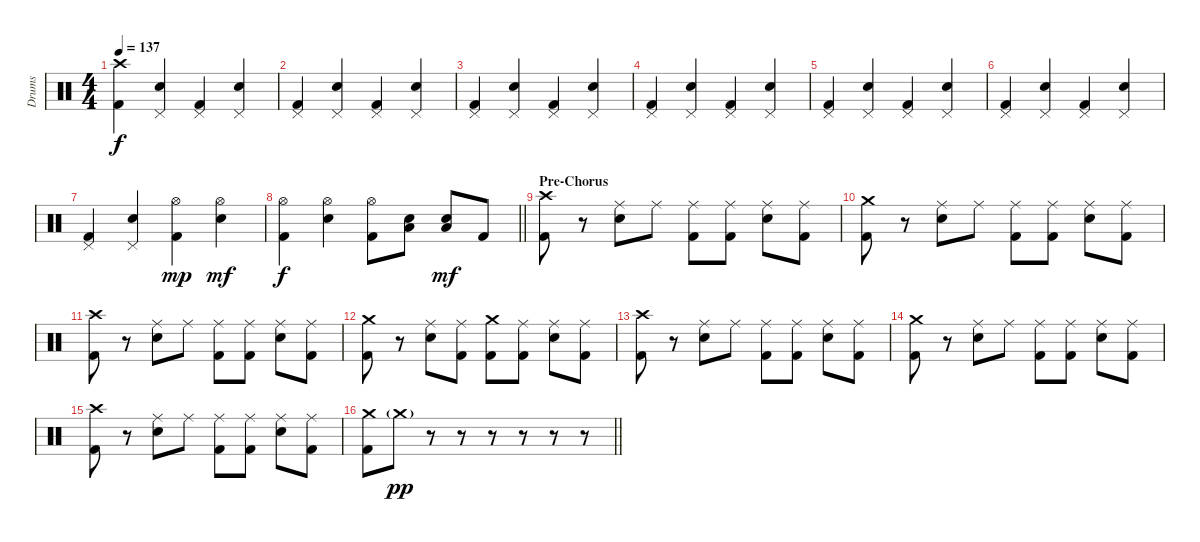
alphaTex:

\track ("Drums" "Drums") {instrument percussion}
\staff {score}
\articulation defaults
\ts (4 4)
\tempo 137
\clef neutral
\ks c
("Crash high (hit)" "Kick (hit) 2").4{dy f} ("Pedal Hi-Hat (hit)" "Electric Snare (hit)").4 ("Pedal Hi-Hat (hit)" "Kick (hit) 2").4 ("Pedal Hi-Hat (hit)" "Electric Snare (hit)").4 |
("Pedal Hi-Hat (hit)" "Kick (hit) 2").4 ("Pedal Hi-Hat (hit)" "Electric Snare (hit)").4 ("Pedal Hi-Hat (hit)" "Kick (hit) 2").4 ("Pedal Hi-Hat (hit)" "Electric Snare (hit)").4 |
("Pedal Hi-Hat (hit)" "Kick (hit) 2").4 ("Pedal Hi-Hat (hit)" "Electric Snare (hit)").4 ("Pedal Hi-Hat (hit)" "Kick (hit) 2").4 ("Pedal Hi-Hat (hit)" "Electric Snare (hit)").4 |
("Pedal Hi-Hat (hit)" "Kick (hit) 2").4 ("Pedal Hi-Hat (hit)" "Electric Snare (hit)").4 ("Pedal Hi-Hat (hit)" "Kick (hit) 2").4 ("Pedal Hi-Hat (hit)" "Electric Snare (hit)").4 |
("Pedal Hi-Hat (hit)" "Kick (hit) 2").4 ("Pedal Hi-Hat (hit)" "Electric Snare (hit)").4 ("Pedal Hi-Hat (hit)" "Kick (hit) 2").4 ("Pedal Hi-Hat (hit)" "Electric Snare (hit)").4 |
("Pedal Hi-Hat (hit)" "Kick (hit) 2").4 ("Pedal Hi-Hat (hit)" "Electric Snare (hit)").4 ("Pedal Hi-Hat (hit)" "Kick (hit) 2").4 ("Pedal Hi-Hat (hit)" "Electric Snare (hit)").4 |
("Pedal Hi-Hat (hit)" "Kick (hit) 2").4 ("Pedal Hi-Hat (hit)" "Electric Snare (hit)").4 ("Hi-Hat (open)" "Kick (hit) 2").4{dy mp} ("Hi-Hat (open)" "Electric Snare (hit)").4{dy mf} |
\barLineRight lightlight
("Hi-Hat (open)" "Kick (hit) 2").4{dy f} ("Hi-Hat (open)" "Electric Snare (hit)").4 ("Hi-Hat (open)" "Kick (hit) 2").8 ("Low Floor Tom (hit)" "Electric Snare (hit)").8 ("Low Floor Tom (hit)" "Electric Snare (hit)").8{dy mf} "Kick (hit) 2".8 |
\section ("" "Pre-Chorus")
("Crash high (hit)" "Kick (hit) 2").8 r.8 ("Ride (middle)" "Electric Snare (hit)").8 "Ride (middle)".8 ("Ride (middle)" "Kick (hit) 2").8 ("Ride (middle)" "Kick (hit) 2").8 ("Ride (middle)" "Electric Snare (hit)").8 ("Ride (middle)" "Kick (hit) 2").8 |
("Crash medium (hit)" "Kick (hit) 2").8 r.8 ("Ride (middle)" "Electric Snare (hit)").8 "Ride (middle)".8 ("Ride (middle)" "Kick (hit) 2").8 ("Ride (middle)" "Kick (hit) 2").8 ("Ride (middle)" "Electric Snare (hit)").8 ("Ride (middle)" "Kick (hit) 2").8 |
("Crash high (hit)" "Kick (hit) 2").8 r.8 ("Ride (middle)" "Electric Snare (hit)").8 "Ride (middle)".8 ("Ride (middle)" "Kick (hit) 2").8 ("Ride (middle)" "Kick (hit) 2").8 ("Ride (middle)" "Electric Snare (hit)").8 ("Ride (middle)" "Kick (hit) 2").8 |
("Crash medium (hit)" "Kick (hit) 2").8 r.8 ("Ride (middle)" "Electric Snare (hit)").8 ("Ride (middle)" "Kick (hit) 2").8 ("Crash medium (hit)" "Kick (hit) 2").8 ("Ride (middle)" "Kick (hit) 2").8 ("Ride (middle)" "Electric Snare (hit)").8 ("Ride (middle)" "Kick (hit) 2").8 |
("Crash high (hit)" "Kick (hit) 2").8 r.8 ("Ride (middle)" "Electric Snare (hit)").8 "Ride (middle)".8 ("Ride (middle)" "Kick (hit) 2").8 ("Ride (middle)" "Kick (hit) 2").8 ("Ride (middle)" "Electric Snare (hit)").8 ("Ride (middle)" "Kick (hit) 2").8 |
("Crash medium (hit)" "Kick (hit) 2").8 r.8 ("Ride (middle)" "Electric Snare (hit)").8 "Ride (middle)".8 ("Ride (middle)" "Kick (hit) 2").8 ("Ride (middle)" "Kick (hit) 2").8 ("Ride (middle)" "Electric Snare (hit)").8 ("Ride (middle)" "Kick (hit) 2").8 |
("Crash high (hit)" "Kick (hit) 2").8 r.8 ("Ride (middle)" "Electric Snare (hit)").8 "Ride (middle)".8 ("Ride (middle)" "Kick (hit) 2").8 ("Ride (middle)" "Kick (hit) 2").8 ("Ride (middle)" "Electric Snare (hit)").8 ("Ride (middle)" "Kick (hit) 2").8 |
\barLineRight lightlight
("Crash medium (hit)" "Kick (hit) 2").8 "Crash medium (hit)"{g}.8{dy pp} r.8 r.8 r.8 r.8 r.8 r.8
